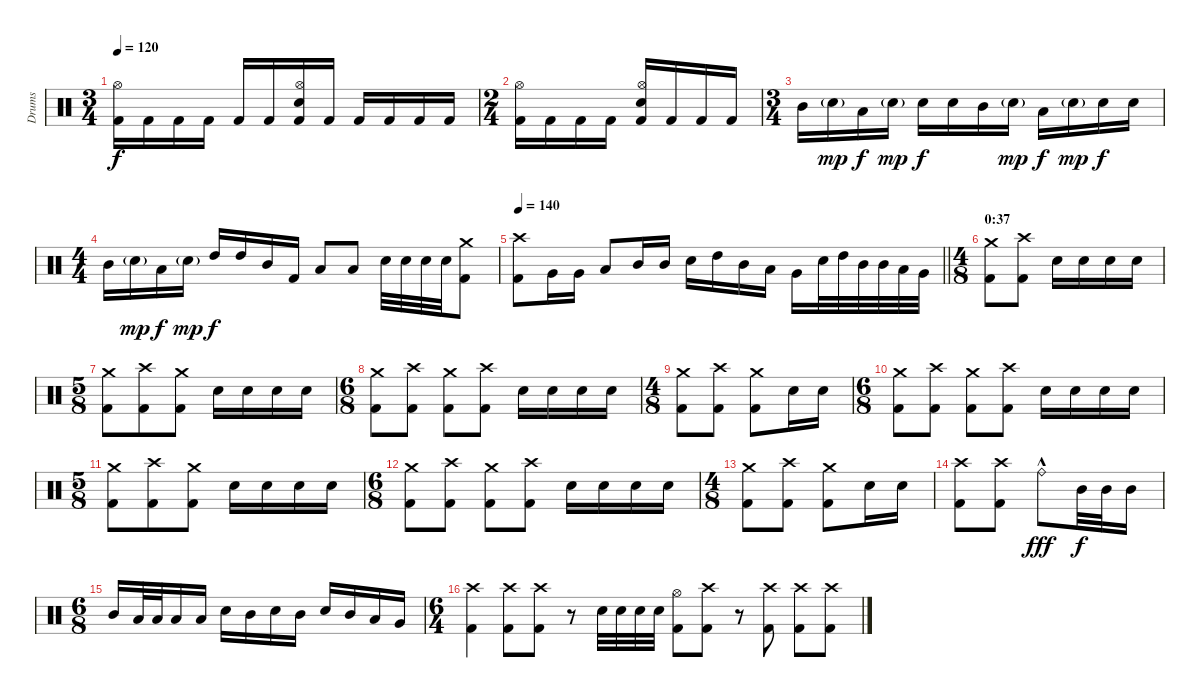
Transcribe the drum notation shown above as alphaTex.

\track ("Drums" "Drums") {instrument percussion}
\staff {score}
\articulation defaults
\ts (3 4)
\tempo 120
\clef neutral
\ks c
("Kick (hit) 2" "Hi-Hat (open)").16{dy f} "Kick (hit) 2".16 "Kick (hit) 2".16 "Kick (hit) 2".16 "Kick (hit) 2".16 "Kick (hit) 2".16 ("Kick (hit) 2" "Hi-Hat (open)" "Electric Snare (hit)").16 "Kick (hit) 2".16 "Kick (hit) 2".16 "Kick (hit) 2".16 "Kick (hit) 2".16 "Kick (hit) 2".16 |
\ts (2 4)
("Kick (hit) 2" "Hi-Hat (open)").16 "Kick (hit) 2".16 "Kick (hit) 2".16 "Kick (hit) 2".16 ("Kick (hit) 2" "Hi-Hat (open)" "Electric Snare (hit)").16 "Kick (hit) 2".16 "Kick (hit) 2".16 "Kick (hit) 2".16 |
\ts (3 4)
"Mid Tom (hit)".16 "Electric Snare (hit)"{g}.16{dy mp} "Low Tom (hit)".16{dy f} "Electric Snare (hit)"{g}.16{dy mp} "Electric Snare (hit)".16{dy f} "Electric Snare (hit)".16 "Mid Tom (hit)".16 "Electric Snare (hit)"{g}.16{dy mp} "Low Tom (hit)".16{dy f} "Electric Snare (hit)"{g}.16{dy mp} "Electric Snare (hit)".16{dy f} "Electric Snare (hit)".16 |
\ts (4 4)
"Mid Tom (hit)".16 "Electric Snare (hit)"{g}.16{dy mp beam merge} "Low Tom (hit)".16{dy f} "Electric Snare (hit)"{g}.16{dy mp} "High Tom (hit)".16{dy f} "High Tom (hit)".16{beam merge} "Mid Tom (hit)".16 "Kick (hit) 2".16 "Low Tom (hit)".8{beam merge} "Low Tom (hit)".8{beam split} "Electric Snare (hit)".32 "Electric Snare (hit)".32 "Electric Snare (hit)".32 "Electric Snare (hit)".32 ("Crash medium (hit)" "Kick (hit) 2").8 |
\tempo 140
\barLineRight lightlight
("Crash high (hit)" "Kick (hit) 2").8{beam merge} "Very Low Tom (hit)".16 "Very Low Tom (hit)".16{beam split} "Low Tom (hit)".8{beam merge} "Mid Tom (hit)".16 "Mid Tom (hit)".16{beam split} "Electric Snare (hit)".16 "High Tom (hit)".16{beam merge} "Mid Tom (hit)".16 "Low Tom (hit)".16{beam split} "Very Low Tom (hit)".16 "Electric Snare (hit)".32 "High Tom (hit)".32{beam merge} "Mid Tom (hit)".32 "Mid Tom (hit)".32 "Low Tom (hit)".32 "Very Low Tom (hit)".32 |
\ts (4 8)
\section ("" "0:37")
("Crash medium (hit)" "Kick (hit) 2").8 ("Crash high (hit)" "Kick (hit) 2").8 "Electric Snare (hit)".16 "Electric Snare (hit)".16{beam merge} "Electric Snare (hit)".16 "Electric Snare (hit)".16 |
\ts (5 8)
("Crash medium (hit)" "Kick (hit) 2").8 ("Crash high (hit)" "Kick (hit) 2").8 ("Crash medium (hit)" "Kick (hit) 2").8 "Electric Snare (hit)".16 "Electric Snare (hit)".16{beam merge} "Electric Snare (hit)".16 "Electric Snare (hit)".16 |
\ts (6 8)
("Crash medium (hit)" "Kick (hit) 2").8 ("Crash high (hit)" "Kick (hit) 2").8{beam split} ("Crash medium (hit)" "Kick (hit) 2").8{beam merge} ("Crash high (hit)" "Kick (hit) 2").8{beam split} "Electric Snare (hit)".16 "Electric Snare (hit)".16 "Electric Snare (hit)".16 "Electric Snare (hit)".16 |
\ts (4 8)
("Crash medium (hit)" "Kick (hit) 2").8 ("Crash high (hit)" "Kick (hit) 2").8 ("Crash medium (hit)" "Kick (hit) 2").8{beam merge} "Electric Snare (hit)".16 "Electric Snare (hit)".16 |
\ts (6 8)
("Crash medium (hit)" "Kick (hit) 2").8 ("Crash high (hit)" "Kick (hit) 2").8{beam split} ("Crash medium (hit)" "Kick (hit) 2").8{beam merge} ("Crash high (hit)" "Kick (hit) 2").8{beam split} "Electric Snare (hit)".16 "Electric Snare (hit)".16 "Electric Snare (hit)".16 "Electric Snare (hit)".16 |
\ts (5 8)
("Crash medium (hit)" "Kick (hit) 2").8 ("Crash high (hit)" "Kick (hit) 2").8 ("Crash medium (hit)" "Kick (hit) 2").8 "Electric Snare (hit)".16 "Electric Snare (hit)".16{beam merge} "Electric Snare (hit)".16 "Electric Snare (hit)".16 |
\ts (6 8)
("Crash medium (hit)" "Kick (hit) 2").8 ("Crash high (hit)" "Kick (hit) 2").8{beam split} ("Crash medium (hit)" "Kick (hit) 2").8{beam merge} ("Crash high (hit)" "Kick (hit) 2").8{beam split} "Electric Snare (hit)".16 "Electric Snare (hit)".16 "Electric Snare (hit)".16 "Electric Snare (hit)".16 |
\ts (4 8)
("Crash medium (hit)" "Kick (hit) 2").8 ("Crash high (hit)" "Kick (hit) 2").8 ("Crash medium (hit)" "Kick (hit) 2").8{beam merge} "Electric Snare (hit)".16 "Electric Snare (hit)".16 |
("Crash high (hit)" "Kick (hit) 2").8 ("Kick (hit) 2" "Crash high (hit)").8 "Ride (bell)"{hac}.8{dy fff beam merge} "Mid Tom (hit)".32{dy f} "Mid Tom (hit)".32 "Mid Tom (hit)".16 |
\ts (6 8)
"Mid Tom (hit)".16{beam merge} "Low Tom (hit)".32 "Low Tom (hit)".32{beam merge} "Low Tom (hit)".16 "Low Tom (hit)".16{beam split} "Electric Snare (hit)".16 "Mid Tom (hit)".16{beam merge} "Electric Snare (hit)".16 "Mid Tom (hit)".16{beam split} "Electric Snare (hit)".16 "Mid Tom (hit)".16{beam merge} "Low Tom (hit)".16 "Very Low Tom (hit)".16 |
\ts (6 4)
("Crash high (hit)" "Kick (hit) 2").4 ("Crash high (hit)" "Kick (hit) 2").8 ("Kick (hit) 2" "Crash high (hit)").8 r.8 "Electric Snare (hit)".32 "Electric Snare (hit)".32 "Electric Snare (hit)".32 "Electric Snare (hit)".32 ("Hi-Hat (open)" "Kick (hit) 2").8 ("Crash high (hit)" "Kick (hit) 2").8 r.8 ("Crash high (hit)" "Kick (hit) 2").8{beam split} ("Crash high (hit)" "Kick (hit) 2").8 ("Kick (hit) 2" "Crash high (hit)").8
